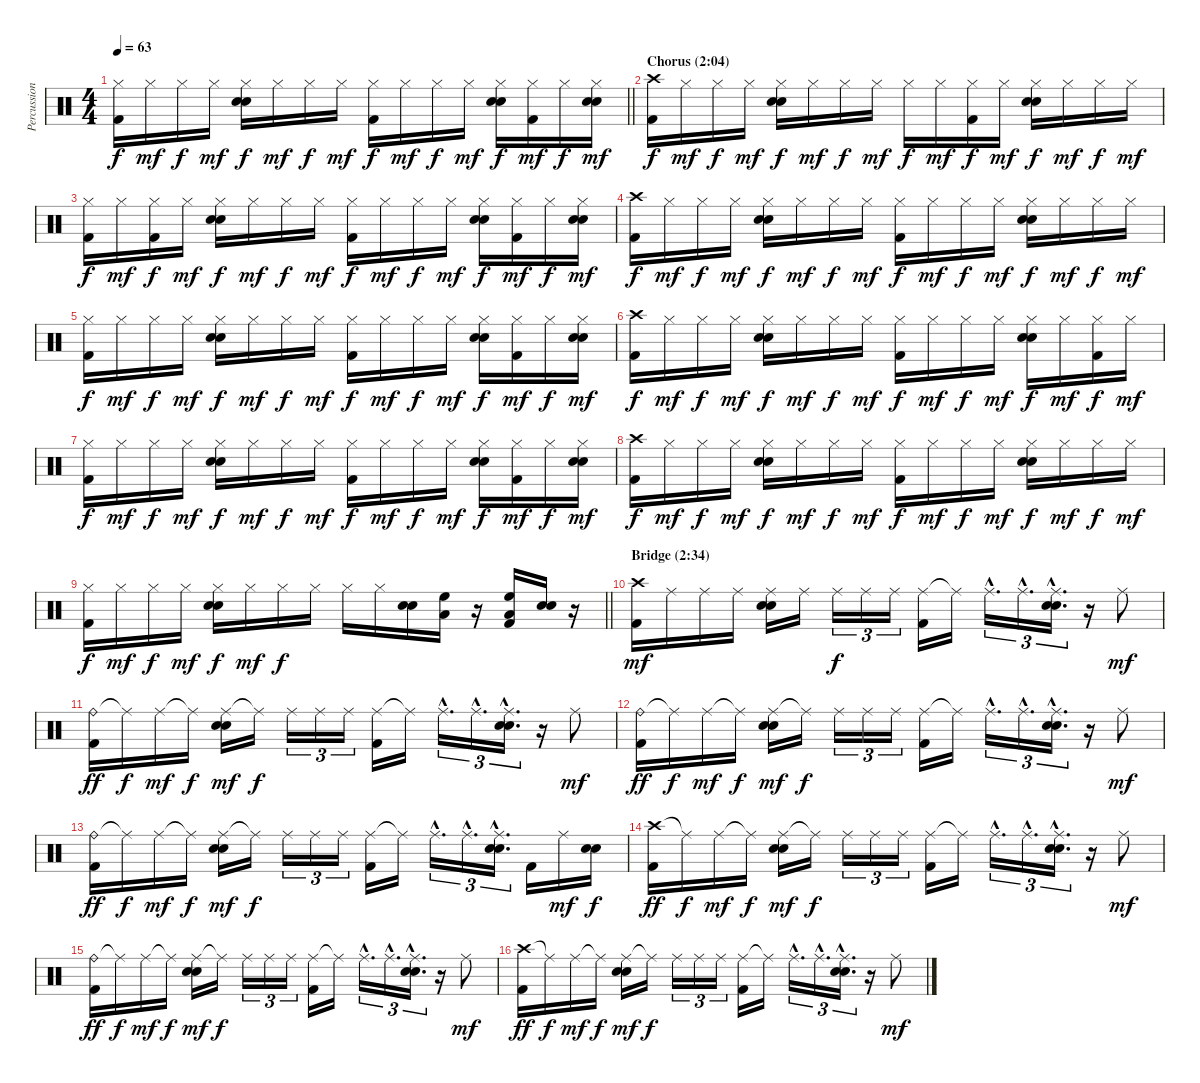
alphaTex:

\track ("Percussion" "Percussion") {instrument percussion}
\staff {score}
\articulation defaults
\ts (4 4)
\tempo 63
\clef neutral
\barLineRight lightlight
\ks c
("Hi-Hat (closed)" "Kick (hit) 2").16{dy f} "Hi-Hat (closed)".16{dy mf} "Hi-Hat (closed)".16{dy f} "Hi-Hat (closed)".16{dy mf} ("Hi-Hat (closed)" "Snare (hit) 2" "Electric Snare (hit)").16{dy f} "Hi-Hat (closed)".16{dy mf} "Hi-Hat (closed)".16{dy f} "Hi-Hat (closed)".16{dy mf} ("Hi-Hat (closed)" "Kick (hit) 2").16{dy f} "Hi-Hat (closed)".16{dy mf} "Hi-Hat (closed)".16{dy f} "Hi-Hat (closed)".16{dy mf} ("Hi-Hat (closed)" "Snare (hit) 2" "Electric Snare (hit)").16{dy f} ("Hi-Hat (closed)" "Kick (hit) 2").16{dy mf} "Hi-Hat (closed)".16{dy f} ("Hi-Hat (closed)" "Snare (hit) 2" "Electric Snare (hit)").16{dy mf} |
\section ("" "Chorus (2:04)")
("Crash high (hit)" "Kick (hit) 2").16{dy f} "Hi-Hat (closed)".16{dy mf} "Hi-Hat (closed)".16{dy f} "Hi-Hat (closed)".16{dy mf} ("Hi-Hat (closed)" "Snare (hit) 2" "Electric Snare (hit)").16{dy f} "Hi-Hat (closed)".16{dy mf} "Hi-Hat (closed)".16{dy f} "Hi-Hat (closed)".16{dy mf} "Hi-Hat (closed)".16{dy f} "Hi-Hat (closed)".16{dy mf} ("Hi-Hat (closed)" "Kick (hit) 2").16{dy f} "Hi-Hat (closed)".16{dy mf} ("Hi-Hat (closed)" "Snare (hit) 2" "Electric Snare (hit)").16{dy f} "Hi-Hat (closed)".16{dy mf} "Hi-Hat (closed)".16{dy f} "Hi-Hat (closed)".16{dy mf} |
("Hi-Hat (closed)" "Kick (hit) 2").16{dy f} "Hi-Hat (closed)".16{dy mf} ("Hi-Hat (closed)" "Kick (hit) 2").16{dy f} "Hi-Hat (closed)".16{dy mf} ("Hi-Hat (closed)" "Snare (hit) 2" "Electric Snare (hit)").16{dy f} "Hi-Hat (closed)".16{dy mf} "Hi-Hat (closed)".16{dy f} "Hi-Hat (closed)".16{dy mf} ("Hi-Hat (closed)" "Kick (hit) 2").16{dy f} "Hi-Hat (closed)".16{dy mf} "Hi-Hat (closed)".16{dy f} "Hi-Hat (closed)".16{dy mf} ("Hi-Hat (closed)" "Snare (hit) 2" "Electric Snare (hit)").16{dy f} ("Hi-Hat (closed)" "Kick (hit) 2").16{dy mf} "Hi-Hat (closed)".16{dy f} ("Hi-Hat (closed)" "Snare (hit) 2" "Electric Snare (hit)").16{dy mf} |
("Crash high (hit)" "Kick (hit) 2").16{dy f} "Hi-Hat (closed)".16{dy mf} "Hi-Hat (closed)".16{dy f} "Hi-Hat (closed)".16{dy mf} ("Hi-Hat (closed)" "Snare (hit) 2" "Electric Snare (hit)").16{dy f} "Hi-Hat (closed)".16{dy mf} "Hi-Hat (closed)".16{dy f} "Hi-Hat (closed)".16{dy mf} ("Hi-Hat (closed)" "Kick (hit) 2").16{dy f} "Hi-Hat (closed)".16{dy mf} "Hi-Hat (closed)".16{dy f} "Hi-Hat (closed)".16{dy mf} ("Hi-Hat (closed)" "Snare (hit) 2" "Electric Snare (hit)").16{dy f} "Hi-Hat (closed)".16{dy mf} "Hi-Hat (closed)".16{dy f} "Hi-Hat (closed)".16{dy mf} |
("Hi-Hat (closed)" "Kick (hit) 2").16{dy f} "Hi-Hat (closed)".16{dy mf} "Hi-Hat (closed)".16{dy f} "Hi-Hat (closed)".16{dy mf} ("Hi-Hat (closed)" "Snare (hit) 2" "Electric Snare (hit)").16{dy f} "Hi-Hat (closed)".16{dy mf} "Hi-Hat (closed)".16{dy f} "Hi-Hat (closed)".16{dy mf} ("Hi-Hat (closed)" "Kick (hit) 2").16{dy f} "Hi-Hat (closed)".16{dy mf} "Hi-Hat (closed)".16{dy f} "Hi-Hat (closed)".16{dy mf} ("Hi-Hat (closed)" "Snare (hit) 2" "Electric Snare (hit)").16{dy f} ("Hi-Hat (closed)" "Kick (hit) 2").16{dy mf} "Hi-Hat (closed)".16{dy f} ("Hi-Hat (closed)" "Snare (hit) 2" "Electric Snare (hit)").16{dy mf} |
("Crash high (hit)" "Kick (hit) 2").16{dy f} "Hi-Hat (closed)".16{dy mf} "Hi-Hat (closed)".16{dy f} "Hi-Hat (closed)".16{dy mf} ("Hi-Hat (closed)" "Snare (hit) 2" "Electric Snare (hit)").16{dy f} "Hi-Hat (closed)".16{dy mf} "Hi-Hat (closed)".16{dy f} "Hi-Hat (closed)".16{dy mf} ("Hi-Hat (closed)" "Kick (hit) 2").16{dy f} "Hi-Hat (closed)".16{dy mf} "Hi-Hat (closed)".16{dy f} "Hi-Hat (closed)".16{dy mf} ("Hi-Hat (closed)" "Snare (hit) 2" "Electric Snare (hit)").16{dy f} "Hi-Hat (closed)".16{dy mf} ("Hi-Hat (closed)" "Kick (hit) 2").16{dy f} "Hi-Hat (closed)".16{dy mf} |
("Hi-Hat (closed)" "Kick (hit) 2").16{dy f} "Hi-Hat (closed)".16{dy mf} "Hi-Hat (closed)".16{dy f} "Hi-Hat (closed)".16{dy mf} ("Hi-Hat (closed)" "Snare (hit) 2" "Electric Snare (hit)").16{dy f} "Hi-Hat (closed)".16{dy mf} "Hi-Hat (closed)".16{dy f} "Hi-Hat (closed)".16{dy mf} ("Hi-Hat (closed)" "Kick (hit) 2").16{dy f} "Hi-Hat (closed)".16{dy mf} "Hi-Hat (closed)".16{dy f} "Hi-Hat (closed)".16{dy mf} ("Hi-Hat (closed)" "Snare (hit) 2" "Electric Snare (hit)").16{dy f} ("Hi-Hat (closed)" "Kick (hit) 2").16{dy mf} "Hi-Hat (closed)".16{dy f} ("Hi-Hat (closed)" "Snare (hit) 2" "Electric Snare (hit)").16{dy mf} |
("Crash high (hit)" "Kick (hit) 2").16{dy f} "Hi-Hat (closed)".16{dy mf} "Hi-Hat (closed)".16{dy f} "Hi-Hat (closed)".16{dy mf} ("Hi-Hat (closed)" "Snare (hit) 2" "Electric Snare (hit)").16{dy f} "Hi-Hat (closed)".16{dy mf} "Hi-Hat (closed)".16{dy f} "Hi-Hat (closed)".16{dy mf} ("Hi-Hat (closed)" "Kick (hit) 2").16{dy f} "Hi-Hat (closed)".16{dy mf} "Hi-Hat (closed)".16{dy f} "Hi-Hat (closed)".16{dy mf} ("Hi-Hat (closed)" "Snare (hit) 2" "Electric Snare (hit)").16{dy f} "Hi-Hat (closed)".16{dy mf} "Hi-Hat (closed)".16{dy f} "Hi-Hat (closed)".16{dy mf} |
\barLineRight lightlight
("Hi-Hat (closed)" "Kick (hit) 2").16{dy f} "Hi-Hat (closed)".16{dy mf} "Hi-Hat (closed)".16{dy f} "Hi-Hat (closed)".16{dy mf} ("Hi-Hat (closed)" "Snare (hit) 2" "Electric Snare (hit)").16{dy f} "Hi-Hat (closed)".16{dy mf} "Hi-Hat (closed)".16{dy f} "Hi-Hat (closed)".16 "Hi-Hat (closed)".16 "Hi-Hat (closed)".16 ("Snare (hit) 2" "Electric Snare (hit)").16 ("High Floor Tom (hit)" "Low Floor Tom (hit)").16 r.16 ("High Floor Tom (hit)" "Low Floor Tom (hit)" "Kick (hit) 2").16 ("Snare (hit) 2" "Electric Snare (hit)").16 r.16 |
\section ("" "Bridge (2:34)")
("Crash high (hit)" "Kick (hit) 2").16{dy mf} "Ride (middle)".16 "Ride (middle)".16 "Ride (middle)".16 ("Ride (middle)" "Snare (hit) 2" "Electric Snare (hit)").16 "Ride (middle)".16 "Ride (middle)".16{tu (3 2) dy f} "Ride (middle)".16{tu (3 2)} "Ride (middle)".16{tu (3 2)} ("Ride (middle)" "Kick (hit) 2").16 "Ride (middle)"{t}.16 "Ride (middle)"{hac}.16{d tu (3 2)} "Ride (middle)"{hac}.16{d tu (3 2)} ("Ride (middle)"{hac} "Snare (hit) 2"{hac} "Electric Snare (hit)"{hac}).16{d tu (3 2)} r.16 "Ride (middle)".8{dy mf} |
("Ride (bell)" "Kick (hit) 2").16{dy ff} "Ride (middle)"{t}.16{dy f} "Ride (middle)".16{dy mf} "Ride (middle)"{t}.16{dy f} ("Ride (middle)" "Snare (hit) 2" "Electric Snare (hit)").16{dy mf} "Ride (middle)"{t}.16{dy f} "Ride (middle)".16{tu (3 2)} "Ride (middle)".16{tu (3 2)} "Ride (middle)".16{tu (3 2)} ("Ride (middle)" "Kick (hit) 2").16 "Ride (middle)"{t}.16 "Ride (middle)"{hac}.16{d tu (3 2)} "Ride (middle)"{hac}.16{d tu (3 2)} ("Ride (middle)"{hac} "Snare (hit) 2"{hac} "Electric Snare (hit)"{hac}).16{d tu (3 2)} r.16 "Ride (middle)".8{dy mf} |
("Ride (bell)" "Kick (hit) 2").16{dy ff} "Ride (middle)"{t}.16{dy f} "Ride (middle)".16{dy mf} "Ride (middle)"{t}.16{dy f} ("Ride (middle)" "Snare (hit) 2" "Electric Snare (hit)").16{dy mf} "Ride (middle)"{t}.16{dy f} "Ride (middle)".16{tu (3 2)} "Ride (middle)".16{tu (3 2)} "Ride (middle)".16{tu (3 2)} ("Ride (middle)" "Kick (hit) 2").16 "Ride (middle)"{t}.16 "Ride (middle)"{hac}.16{d tu (3 2)} "Ride (middle)"{hac}.16{d tu (3 2)} ("Ride (middle)"{hac} "Snare (hit) 2"{hac} "Electric Snare (hit)"{hac}).16{d tu (3 2)} r.16 "Ride (middle)".8{dy mf} |
("Ride (bell)" "Kick (hit) 2").16{dy ff} "Ride (middle)"{t}.16{dy f} "Ride (middle)".16{dy mf} "Ride (middle)"{t}.16{dy f} ("Ride (middle)" "Snare (hit) 2" "Electric Snare (hit)").16{dy mf} "Ride (middle)"{t}.16{dy f} "Ride (middle)".16{tu (3 2)} "Ride (middle)".16{tu (3 2)} "Ride (middle)".16{tu (3 2)} ("Ride (middle)" "Kick (hit) 2").16 "Ride (middle)"{t}.16 "Ride (middle)"{hac}.16{d tu (3 2)} "Ride (middle)"{hac}.16{d tu (3 2)} ("Ride (middle)"{hac} "Snare (hit) 2"{hac} "Electric Snare (hit)"{hac}).16{d tu (3 2)} "Kick (hit) 2".16 "Ride (middle)".16{dy mf} ("Snare (hit) 2" "Electric Snare (hit)").16{dy f} |
("Crash high (hit)" "Kick (hit) 2").16{dy ff} "Ride (middle)"{t}.16{dy f} "Ride (middle)".16{dy mf} "Ride (middle)"{t}.16{dy f} ("Ride (middle)" "Snare (hit) 2" "Electric Snare (hit)").16{dy mf} "Ride (middle)"{t}.16{dy f} "Ride (middle)".16{tu (3 2)} "Ride (middle)".16{tu (3 2)} "Ride (middle)".16{tu (3 2)} ("Ride (middle)" "Kick (hit) 2").16 "Ride (middle)"{t}.16 "Ride (middle)"{hac}.16{d tu (3 2)} "Ride (middle)"{hac}.16{d tu (3 2)} ("Ride (middle)"{hac} "Snare (hit) 2"{hac} "Electric Snare (hit)"{hac}).16{d tu (3 2)} r.16 "Ride (middle)".8{dy mf} |
("Ride (bell)" "Kick (hit) 2").16{dy ff} "Ride (middle)"{t}.16{dy f} "Ride (middle)".16{dy mf} "Ride (middle)"{t}.16{dy f} ("Ride (middle)" "Snare (hit) 2" "Electric Snare (hit)").16{dy mf} "Ride (middle)"{t}.16{dy f} "Ride (middle)".16{tu (3 2)} "Ride (middle)".16{tu (3 2)} "Ride (middle)".16{tu (3 2)} ("Ride (middle)" "Kick (hit) 2").16 "Ride (middle)"{t}.16 "Ride (middle)"{hac}.16{d tu (3 2)} "Ride (middle)"{hac}.16{d tu (3 2)} ("Ride (middle)"{hac} "Snare (hit) 2"{hac} "Electric Snare (hit)"{hac}).16{d tu (3 2)} r.16 "Ride (middle)".8{dy mf} |
("Crash high (hit)" "Kick (hit) 2").16{dy ff} "Ride (middle)"{t}.16{dy f} "Ride (middle)".16{dy mf} "Ride (middle)"{t}.16{dy f} ("Ride (middle)" "Snare (hit) 2" "Electric Snare (hit)").16{dy mf} "Ride (middle)"{t}.16{dy f} "Ride (middle)".16{tu (3 2)} "Ride (middle)".16{tu (3 2)} "Ride (middle)".16{tu (3 2)} ("Ride (middle)" "Kick (hit) 2").16 "Ride (middle)"{t}.16 "Ride (middle)"{hac}.16{d tu (3 2)} "Ride (middle)"{hac}.16{d tu (3 2)} ("Ride (middle)"{hac} "Snare (hit) 2"{hac} "Electric Snare (hit)"{hac}).16{d tu (3 2)} r.16 "Ride (middle)".8{dy mf}
